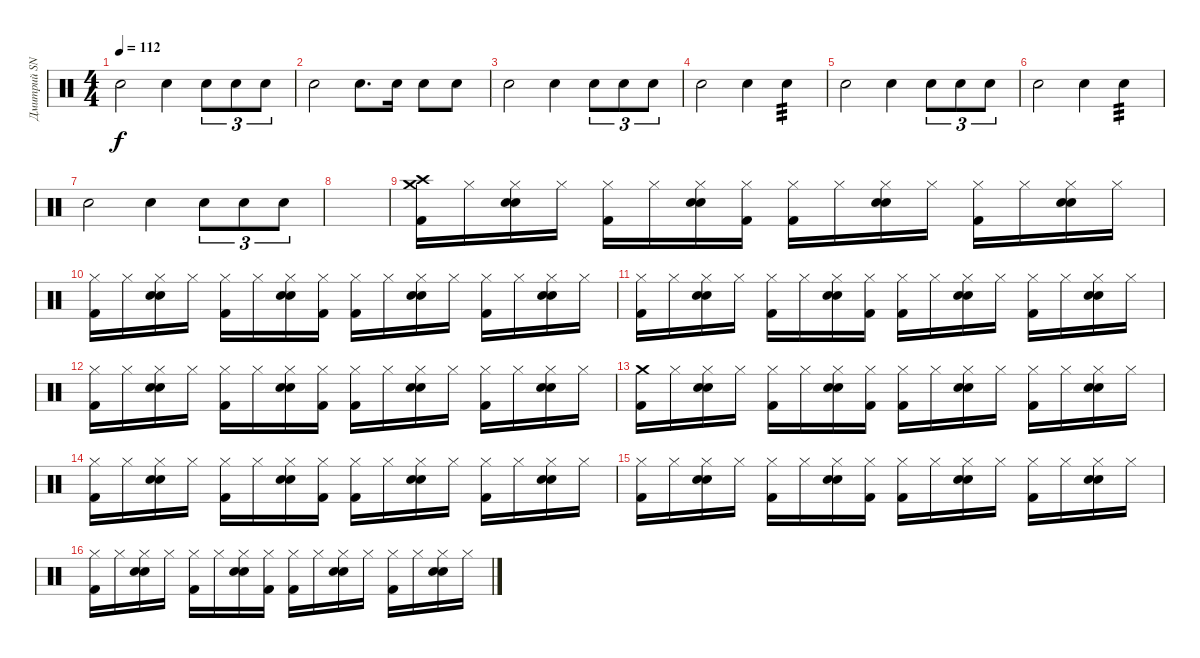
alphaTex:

\track ("Дмитрий SNAKE Хакимов" "Дмитрий SN") {instrument percussion}
\staff {score}
\articulation defaults
\ts (4 4)
\tempo 112
\clef neutral
\ks c "Snare (hit) 2".2{dy f} "Snare (hit) 2".4 "Snare (hit) 2".8{tu (3 2)} "Snare (hit) 2".8{tu (3 2)} "Snare (hit) 2".8{tu (3 2)}
|
"Snare (hit) 2".2 "Snare (hit) 2".8{d} "Snare (hit) 2".16 "Snare (hit) 2".8 "Snare (hit) 2".8 |
"Snare (hit) 2".2 "Snare (hit) 2".4 "Snare (hit) 2".8{tu (3 2)} "Snare (hit) 2".8{tu (3 2)} "Snare (hit) 2".8{tu (3 2)} |
"Snare (hit) 2".2 "Snare (hit) 2".4 "Snare (hit) 2".4{tp 3} |
"Snare (hit) 2".2 "Snare (hit) 2".4 "Snare (hit) 2".8{tu (3 2)} "Snare (hit) 2".8{tu (3 2)} "Snare (hit) 2".8{tu (3 2)} |
"Snare (hit) 2".2 "Snare (hit) 2".4 "Snare (hit) 2".4{tp 3} |
"Snare (hit) 2".2 "Snare (hit) 2".4 "Snare (hit) 2".8{tu (3 2)} "Snare (hit) 2".8{tu (3 2)} "Snare (hit) 2".8{tu (3 2)} |
|
("Crash high (hit)" "Crash medium (hit)" "Kick (hit) 2").16 "Hi-Hat (closed)".16 ("Hi-Hat (closed)" "Hand Clap (hit)" "Snare (hit) 2").16 "Hi-Hat (closed)".16 ("Hi-Hat (closed)" "Kick (hit) 2").16 "Hi-Hat (closed)".16 ("Hi-Hat (closed)" "Hand Clap (hit)" "Snare (hit) 2").16 ("Hi-Hat (closed)" "Kick (hit) 2").16 ("Hi-Hat (closed)" "Kick (hit) 2").16 "Hi-Hat (closed)".16 ("Hi-Hat (closed)" "Hand Clap (hit)" "Snare (hit) 2").16 "Hi-Hat (closed)".16 ("Hi-Hat (closed)" "Kick (hit) 2").16 "Hi-Hat (closed)".16 ("Hi-Hat (closed)" "Hand Clap (hit)" "Snare (hit) 2").16 "Hi-Hat (closed)".16 |
("Hi-Hat (closed)" "Kick (hit) 2").16 "Hi-Hat (closed)".16 ("Hi-Hat (closed)" "Hand Clap (hit)" "Snare (hit) 2").16 "Hi-Hat (closed)".16 ("Hi-Hat (closed)" "Kick (hit) 2").16 "Hi-Hat (closed)".16 ("Hi-Hat (closed)" "Hand Clap (hit)" "Snare (hit) 2").16 ("Hi-Hat (closed)" "Kick (hit) 2").16 ("Hi-Hat (closed)" "Kick (hit) 2").16 "Hi-Hat (closed)".16 ("Hi-Hat (closed)" "Hand Clap (hit)" "Snare (hit) 2").16 "Hi-Hat (closed)".16 ("Hi-Hat (closed)" "Kick (hit) 2").16 "Hi-Hat (closed)".16 ("Hi-Hat (closed)" "Hand Clap (hit)" "Snare (hit) 2").16 "Hi-Hat (closed)".16 |
("Hi-Hat (closed)" "Kick (hit) 2").16 "Hi-Hat (closed)".16 ("Hi-Hat (closed)" "Hand Clap (hit)" "Snare (hit) 2").16 "Hi-Hat (closed)".16 ("Hi-Hat (closed)" "Kick (hit) 2").16 "Hi-Hat (closed)".16 ("Hi-Hat (closed)" "Hand Clap (hit)" "Snare (hit) 2").16 ("Hi-Hat (closed)" "Kick (hit) 2").16 ("Hi-Hat (closed)" "Kick (hit) 2").16 "Hi-Hat (closed)".16 ("Hi-Hat (closed)" "Hand Clap (hit)" "Snare (hit) 2").16 "Hi-Hat (closed)".16 ("Hi-Hat (closed)" "Kick (hit) 2").16 "Hi-Hat (closed)".16 ("Hi-Hat (closed)" "Hand Clap (hit)" "Snare (hit) 2").16 "Hi-Hat (closed)".16 |
("Hi-Hat (closed)" "Kick (hit) 2").16 "Hi-Hat (closed)".16 ("Hi-Hat (closed)" "Hand Clap (hit)" "Snare (hit) 2").16 "Hi-Hat (closed)".16 ("Hi-Hat (closed)" "Kick (hit) 2").16 "Hi-Hat (closed)".16 ("Hi-Hat (closed)" "Hand Clap (hit)" "Snare (hit) 2").16 ("Hi-Hat (closed)" "Kick (hit) 2").16 ("Hi-Hat (closed)" "Kick (hit) 2").16 "Hi-Hat (closed)".16 ("Hi-Hat (closed)" "Hand Clap (hit)" "Snare (hit) 2").16 "Hi-Hat (closed)".16 ("Hi-Hat (closed)" "Kick (hit) 2").16 "Hi-Hat (closed)".16 ("Hi-Hat (closed)" "Hand Clap (hit)" "Snare (hit) 2").16 "Hi-Hat (closed)".16 |
("Crash medium (hit)" "Kick (hit) 2").16 "Hi-Hat (closed)".16 ("Hi-Hat (closed)" "Hand Clap (hit)" "Snare (hit) 2").16 "Hi-Hat (closed)".16 ("Hi-Hat (closed)" "Kick (hit) 2").16 "Hi-Hat (closed)".16 ("Hi-Hat (closed)" "Hand Clap (hit)" "Snare (hit) 2").16 ("Hi-Hat (closed)" "Kick (hit) 2").16 ("Hi-Hat (closed)" "Kick (hit) 2").16 "Hi-Hat (closed)".16 ("Hi-Hat (closed)" "Hand Clap (hit)" "Snare (hit) 2").16 "Hi-Hat (closed)".16 ("Hi-Hat (closed)" "Kick (hit) 2").16 "Hi-Hat (closed)".16 ("Hi-Hat (closed)" "Hand Clap (hit)" "Snare (hit) 2").16 "Hi-Hat (closed)".16 |
("Hi-Hat (closed)" "Kick (hit) 2").16 "Hi-Hat (closed)".16 ("Hi-Hat (closed)" "Hand Clap (hit)" "Snare (hit) 2").16 "Hi-Hat (closed)".16 ("Hi-Hat (closed)" "Kick (hit) 2").16 "Hi-Hat (closed)".16 ("Hi-Hat (closed)" "Hand Clap (hit)" "Snare (hit) 2").16 ("Hi-Hat (closed)" "Kick (hit) 2").16 ("Hi-Hat (closed)" "Kick (hit) 2").16 "Hi-Hat (closed)".16 ("Hi-Hat (closed)" "Hand Clap (hit)" "Snare (hit) 2").16 "Hi-Hat (closed)".16 ("Hi-Hat (closed)" "Kick (hit) 2").16 "Hi-Hat (closed)".16 ("Hi-Hat (closed)" "Hand Clap (hit)" "Snare (hit) 2").16 "Hi-Hat (closed)".16 |
("Hi-Hat (closed)" "Kick (hit) 2").16 "Hi-Hat (closed)".16 ("Hi-Hat (closed)" "Hand Clap (hit)" "Snare (hit) 2").16 "Hi-Hat (closed)".16 ("Hi-Hat (closed)" "Kick (hit) 2").16 "Hi-Hat (closed)".16 ("Hi-Hat (closed)" "Hand Clap (hit)" "Snare (hit) 2").16 ("Hi-Hat (closed)" "Kick (hit) 2").16 ("Hi-Hat (closed)" "Kick (hit) 2").16 "Hi-Hat (closed)".16 ("Hi-Hat (closed)" "Hand Clap (hit)" "Snare (hit) 2").16 "Hi-Hat (closed)".16 ("Hi-Hat (closed)" "Kick (hit) 2").16 "Hi-Hat (closed)".16 ("Hi-Hat (closed)" "Hand Clap (hit)" "Snare (hit) 2").16 "Hi-Hat (closed)".16 |
("Hi-Hat (closed)" "Kick (hit) 2").16 "Hi-Hat (closed)".16 ("Hi-Hat (closed)" "Hand Clap (hit)" "Snare (hit) 2").16 "Hi-Hat (closed)".16 ("Hi-Hat (closed)" "Kick (hit) 2").16 "Hi-Hat (closed)".16 ("Hi-Hat (closed)" "Hand Clap (hit)" "Snare (hit) 2").16 ("Hi-Hat (closed)" "Kick (hit) 2").16 ("Hi-Hat (closed)" "Kick (hit) 2").16 "Hi-Hat (closed)".16 ("Hi-Hat (closed)" "Hand Clap (hit)" "Snare (hit) 2").16 "Hi-Hat (closed)".16 ("Hi-Hat (closed)" "Kick (hit) 2").16 "Hi-Hat (closed)".16 ("Hi-Hat (closed)" "Hand Clap (hit)" "Snare (hit) 2").16 "Hi-Hat (closed)".16
